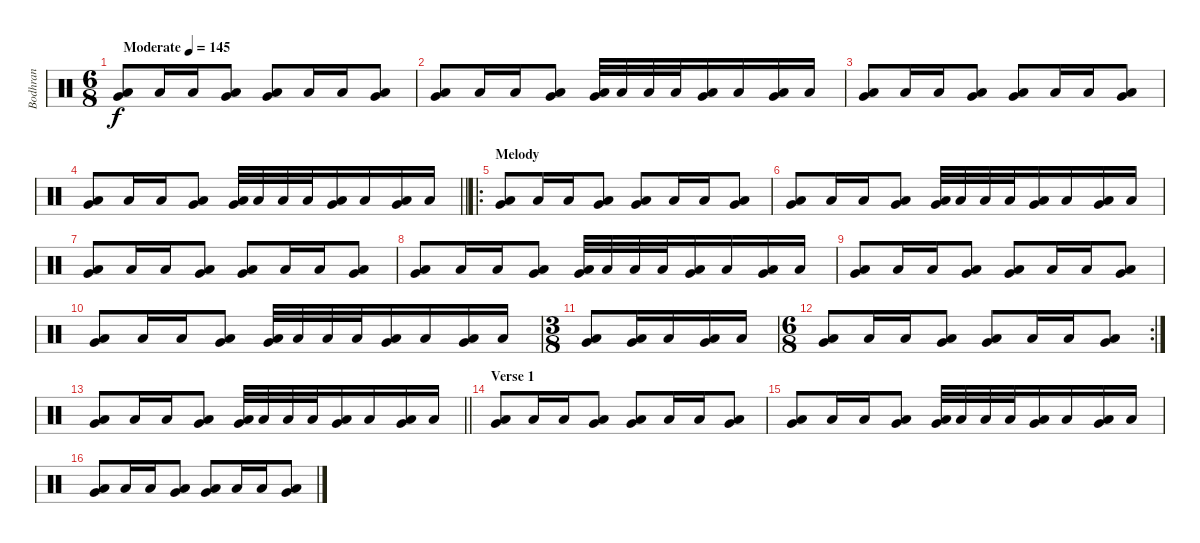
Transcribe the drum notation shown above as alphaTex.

\track ("Bodhran" "Bodhran") {instrument percussion}
\staff {score}
\articulation defaults
\ts (6 8)
\tempo (145 "Moderate")
\clef neutral
\ks c
("Very Low Tom (hit)" "Low Floor Tom (hit)").8{dy f} "Low Floor Tom (hit)".16 "Low Floor Tom (hit)".16 ("Very Low Tom (hit)" "Low Floor Tom (hit)").8 ("Very Low Tom (hit)" "Low Floor Tom (hit)").8 "Low Floor Tom (hit)".16 "Low Floor Tom (hit)".16 ("Very Low Tom (hit)" "Low Floor Tom (hit)").8 |
("Very Low Tom (hit)" "Low Floor Tom (hit)").8 "Low Floor Tom (hit)".16 "Low Floor Tom (hit)".16 ("Very Low Tom (hit)" "Low Floor Tom (hit)").8 ("Very Low Tom (hit)" "Low Floor Tom (hit)").32 "Low Floor Tom (hit)".32 "Low Floor Tom (hit)".32 "Low Floor Tom (hit)".32 ("Very Low Tom (hit)" "Low Floor Tom (hit)").16 "Low Floor Tom (hit)".16 ("Very Low Tom (hit)" "Low Floor Tom (hit)").16 "Low Floor Tom (hit)".16 |
("Very Low Tom (hit)" "Low Floor Tom (hit)").8 "Low Floor Tom (hit)".16 "Low Floor Tom (hit)".16 ("Very Low Tom (hit)" "Low Floor Tom (hit)").8 ("Very Low Tom (hit)" "Low Floor Tom (hit)").8 "Low Floor Tom (hit)".16 "Low Floor Tom (hit)".16 ("Very Low Tom (hit)" "Low Floor Tom (hit)").8 |
\barLineRight lightlight
("Very Low Tom (hit)" "Low Floor Tom (hit)").8 "Low Floor Tom (hit)".16 "Low Floor Tom (hit)".16 ("Very Low Tom (hit)" "Low Floor Tom (hit)").8 ("Very Low Tom (hit)" "Low Floor Tom (hit)").32 "Low Floor Tom (hit)".32 "Low Floor Tom (hit)".32 "Low Floor Tom (hit)".32 ("Very Low Tom (hit)" "Low Floor Tom (hit)").16 "Low Floor Tom (hit)".16 ("Very Low Tom (hit)" "Low Floor Tom (hit)").16 "Low Floor Tom (hit)".16 |
\ro
\section ("" "Melody")
("Very Low Tom (hit)" "Low Floor Tom (hit)").8 "Low Floor Tom (hit)".16 "Low Floor Tom (hit)".16 ("Very Low Tom (hit)" "Low Floor Tom (hit)").8 ("Very Low Tom (hit)" "Low Floor Tom (hit)").8 "Low Floor Tom (hit)".16 "Low Floor Tom (hit)".16 ("Very Low Tom (hit)" "Low Floor Tom (hit)").8 |
("Very Low Tom (hit)" "Low Floor Tom (hit)").8 "Low Floor Tom (hit)".16 "Low Floor Tom (hit)".16 ("Very Low Tom (hit)" "Low Floor Tom (hit)").8 ("Very Low Tom (hit)" "Low Floor Tom (hit)").32 "Low Floor Tom (hit)".32 "Low Floor Tom (hit)".32 "Low Floor Tom (hit)".32 ("Very Low Tom (hit)" "Low Floor Tom (hit)").16 "Low Floor Tom (hit)".16 ("Very Low Tom (hit)" "Low Floor Tom (hit)").16 "Low Floor Tom (hit)".16 |
("Very Low Tom (hit)" "Low Floor Tom (hit)").8 "Low Floor Tom (hit)".16 "Low Floor Tom (hit)".16 ("Very Low Tom (hit)" "Low Floor Tom (hit)").8 ("Very Low Tom (hit)" "Low Floor Tom (hit)").8 "Low Floor Tom (hit)".16 "Low Floor Tom (hit)".16 ("Very Low Tom (hit)" "Low Floor Tom (hit)").8 |
("Very Low Tom (hit)" "Low Floor Tom (hit)").8 "Low Floor Tom (hit)".16 "Low Floor Tom (hit)".16 ("Very Low Tom (hit)" "Low Floor Tom (hit)").8 ("Very Low Tom (hit)" "Low Floor Tom (hit)").32 "Low Floor Tom (hit)".32 "Low Floor Tom (hit)".32 "Low Floor Tom (hit)".32 ("Very Low Tom (hit)" "Low Floor Tom (hit)").16 "Low Floor Tom (hit)".16 ("Very Low Tom (hit)" "Low Floor Tom (hit)").16 "Low Floor Tom (hit)".16 |
("Very Low Tom (hit)" "Low Floor Tom (hit)").8 "Low Floor Tom (hit)".16 "Low Floor Tom (hit)".16 ("Very Low Tom (hit)" "Low Floor Tom (hit)").8 ("Very Low Tom (hit)" "Low Floor Tom (hit)").8 "Low Floor Tom (hit)".16 "Low Floor Tom (hit)".16 ("Very Low Tom (hit)" "Low Floor Tom (hit)").8 |
("Very Low Tom (hit)" "Low Floor Tom (hit)").8 "Low Floor Tom (hit)".16 "Low Floor Tom (hit)".16 ("Very Low Tom (hit)" "Low Floor Tom (hit)").8 ("Very Low Tom (hit)" "Low Floor Tom (hit)").32 "Low Floor Tom (hit)".32 "Low Floor Tom (hit)".32 "Low Floor Tom (hit)".32 ("Very Low Tom (hit)" "Low Floor Tom (hit)").16 "Low Floor Tom (hit)".16 ("Very Low Tom (hit)" "Low Floor Tom (hit)").16 "Low Floor Tom (hit)".16 |
\ts (3 8)
("Very Low Tom (hit)" "Low Floor Tom (hit)").8 ("Very Low Tom (hit)" "Low Floor Tom (hit)").16 "Low Floor Tom (hit)".16 ("Very Low Tom (hit)" "Low Floor Tom (hit)").16 "Low Floor Tom (hit)".16 |
\rc 2
\ts (6 8)
("Very Low Tom (hit)" "Low Floor Tom (hit)").8 "Low Floor Tom (hit)".16 "Low Floor Tom (hit)".16 ("Very Low Tom (hit)" "Low Floor Tom (hit)").8 ("Very Low Tom (hit)" "Low Floor Tom (hit)").8 "Low Floor Tom (hit)".16 "Low Floor Tom (hit)".16 ("Very Low Tom (hit)" "Low Floor Tom (hit)").8 |
\barLineRight lightlight
("Very Low Tom (hit)" "Low Floor Tom (hit)").8 "Low Floor Tom (hit)".16 "Low Floor Tom (hit)".16 ("Very Low Tom (hit)" "Low Floor Tom (hit)").8 ("Very Low Tom (hit)" "Low Floor Tom (hit)").32 "Low Floor Tom (hit)".32 "Low Floor Tom (hit)".32 "Low Floor Tom (hit)".32 ("Very Low Tom (hit)" "Low Floor Tom (hit)").16 "Low Floor Tom (hit)".16 ("Very Low Tom (hit)" "Low Floor Tom (hit)").16 "Low Floor Tom (hit)".16 |
\section ("" "Verse 1")
("Very Low Tom (hit)" "Low Floor Tom (hit)").8 "Low Floor Tom (hit)".16 "Low Floor Tom (hit)".16 ("Very Low Tom (hit)" "Low Floor Tom (hit)").8 ("Very Low Tom (hit)" "Low Floor Tom (hit)").8 "Low Floor Tom (hit)".16 "Low Floor Tom (hit)".16 ("Very Low Tom (hit)" "Low Floor Tom (hit)").8 |
("Very Low Tom (hit)" "Low Floor Tom (hit)").8 "Low Floor Tom (hit)".16 "Low Floor Tom (hit)".16 ("Very Low Tom (hit)" "Low Floor Tom (hit)").8 ("Very Low Tom (hit)" "Low Floor Tom (hit)").32 "Low Floor Tom (hit)".32 "Low Floor Tom (hit)".32 "Low Floor Tom (hit)".32 ("Very Low Tom (hit)" "Low Floor Tom (hit)").16 "Low Floor Tom (hit)".16 ("Very Low Tom (hit)" "Low Floor Tom (hit)").16 "Low Floor Tom (hit)".16 |
("Very Low Tom (hit)" "Low Floor Tom (hit)").8 "Low Floor Tom (hit)".16 "Low Floor Tom (hit)".16 ("Very Low Tom (hit)" "Low Floor Tom (hit)").8 ("Very Low Tom (hit)" "Low Floor Tom (hit)").8 "Low Floor Tom (hit)".16 "Low Floor Tom (hit)".16 ("Very Low Tom (hit)" "Low Floor Tom (hit)").8
